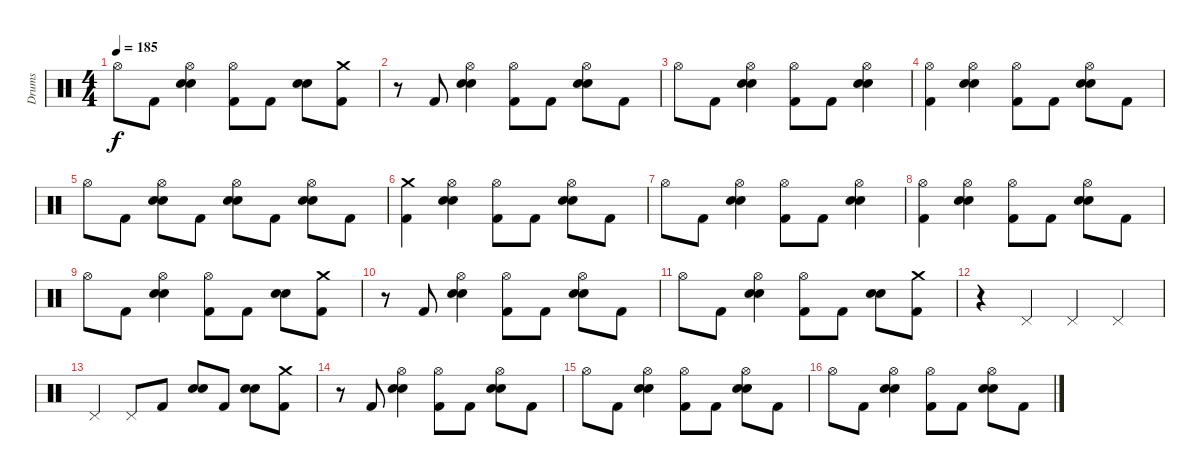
\track ("Drums" "Drums") {instrument percussion}
\staff {score}
\articulation defaults
\ts (4 4)
\tempo 185
\clef neutral
\ks c "Hi-Hat (open)".8{dy f} "Kick (hit) 2".8
("Hi-Hat (open)" "Electric Snare (hit)" "Snare (hit) 2").4 ("Hi-Hat (open)" "Kick (hit) 2").8 "Kick (hit) 2".8 ("Electric Snare (hit)" "Snare (hit) 2").8 ("Crash medium (hit)" "Kick (hit) 2").8 |
r.8 "Kick (hit) 2".8 ("Hi-Hat (open)" "Electric Snare (hit)" "Snare (hit) 2").4 ("Hi-Hat (open)" "Kick (hit) 2").8 "Kick (hit) 2".8 ("Hi-Hat (open)" "Electric Snare (hit)" "Snare (hit) 2").8 "Kick (hit) 2".8 |
"Hi-Hat (open)".8 "Kick (hit) 2".8 ("Hi-Hat (open)" "Electric Snare (hit)" "Snare (hit) 2").4 ("Hi-Hat (open)" "Kick (hit) 2").8 "Kick (hit) 2".8 ("Hi-Hat (open)" "Electric Snare (hit)" "Snare (hit) 2").4 |
("Hi-Hat (open)" "Kick (hit) 2").4 ("Hi-Hat (open)" "Electric Snare (hit)" "Snare (hit) 2").4 ("Hi-Hat (open)" "Kick (hit) 2").8 "Kick (hit) 2".8 ("Hi-Hat (open)" "Electric Snare (hit)" "Snare (hit) 2").8 "Kick (hit) 2".8 |
"Hi-Hat (open)".8 "Kick (hit) 2".8 ("Hi-Hat (open)" "Electric Snare (hit)" "Snare (hit) 2").8 "Kick (hit) 2".8 ("Hi-Hat (open)" "Electric Snare (hit)" "Snare (hit) 2").8 "Kick (hit) 2".8 ("Hi-Hat (open)" "Electric Snare (hit)" "Snare (hit) 2").8 "Kick (hit) 2".8 |
("Crash medium (hit)" "Kick (hit) 2").4 ("Hi-Hat (open)" "Snare (hit) 2" "Electric Snare (hit)").4 ("Hi-Hat (open)" "Kick (hit) 2").8 "Kick (hit) 2".8 ("Hi-Hat (open)" "Snare (hit) 2" "Electric Snare (hit)").8 "Kick (hit) 2".8 |
"Hi-Hat (open)".8 "Kick (hit) 2".8 ("Hi-Hat (open)" "Electric Snare (hit)" "Snare (hit) 2").4 ("Hi-Hat (open)" "Kick (hit) 2").8 "Kick (hit) 2".8 ("Hi-Hat (open)" "Electric Snare (hit)" "Snare (hit) 2").4 |
("Hi-Hat (open)" "Kick (hit) 2").4 ("Hi-Hat (open)" "Electric Snare (hit)" "Snare (hit) 2").4 ("Hi-Hat (open)" "Kick (hit) 2").8 "Kick (hit) 2".8 ("Hi-Hat (open)" "Electric Snare (hit)" "Snare (hit) 2").8 "Kick (hit) 2".8 |
"Hi-Hat (open)".8 "Kick (hit) 2".8 ("Hi-Hat (open)" "Electric Snare (hit)" "Snare (hit) 2").4 ("Hi-Hat (open)" "Kick (hit) 2").8 "Kick (hit) 2".8 ("Electric Snare (hit)" "Snare (hit) 2").8 ("Crash medium (hit)" "Kick (hit) 2").8 |
r.8 "Kick (hit) 2".8 ("Hi-Hat (open)" "Electric Snare (hit)" "Snare (hit) 2").4 ("Hi-Hat (open)" "Kick (hit) 2").8 "Kick (hit) 2".8 ("Hi-Hat (open)" "Electric Snare (hit)" "Snare (hit) 2").8 "Kick (hit) 2".8 |
"Hi-Hat (open)".8 "Kick (hit) 2".8 ("Hi-Hat (open)" "Electric Snare (hit)" "Snare (hit) 2").4 ("Hi-Hat (open)" "Kick (hit) 2").8 "Kick (hit) 2".8 ("Electric Snare (hit)" "Snare (hit) 2").8 ("Crash medium (hit)" "Kick (hit) 2").8 |
r.4 "Pedal Hi-Hat (hit)".4 "Pedal Hi-Hat (hit)".4 "Pedal Hi-Hat (hit)".4 |
"Pedal Hi-Hat (hit)".4 "Pedal Hi-Hat (hit)".8 "Kick (hit) 2".8 ("Snare (hit) 2" "Electric Snare (hit)").8 "Kick (hit) 2".8 ("Snare (hit) 2" "Electric Snare (hit)").8 ("Crash medium (hit)" "Kick (hit) 2").8 |
r.8 "Kick (hit) 2".8 ("Hi-Hat (open)" "Electric Snare (hit)" "Snare (hit) 2").4 ("Hi-Hat (open)" "Kick (hit) 2").8 "Kick (hit) 2".8 ("Hi-Hat (open)" "Electric Snare (hit)" "Snare (hit) 2").8 "Kick (hit) 2".8 |
"Hi-Hat (open)".8 "Kick (hit) 2".8 ("Hi-Hat (open)" "Electric Snare (hit)" "Snare (hit) 2").4 ("Hi-Hat (open)" "Kick (hit) 2").8 "Kick (hit) 2".8 ("Hi-Hat (open)" "Electric Snare (hit)" "Snare (hit) 2").8 "Kick (hit) 2".8 |
"Hi-Hat (open)".8 "Kick (hit) 2".8 ("Hi-Hat (open)" "Electric Snare (hit)" "Snare (hit) 2").4 ("Hi-Hat (open)" "Kick (hit) 2").8 "Kick (hit) 2".8 ("Hi-Hat (open)" "Electric Snare (hit)" "Snare (hit) 2").8 "Kick (hit) 2".8
